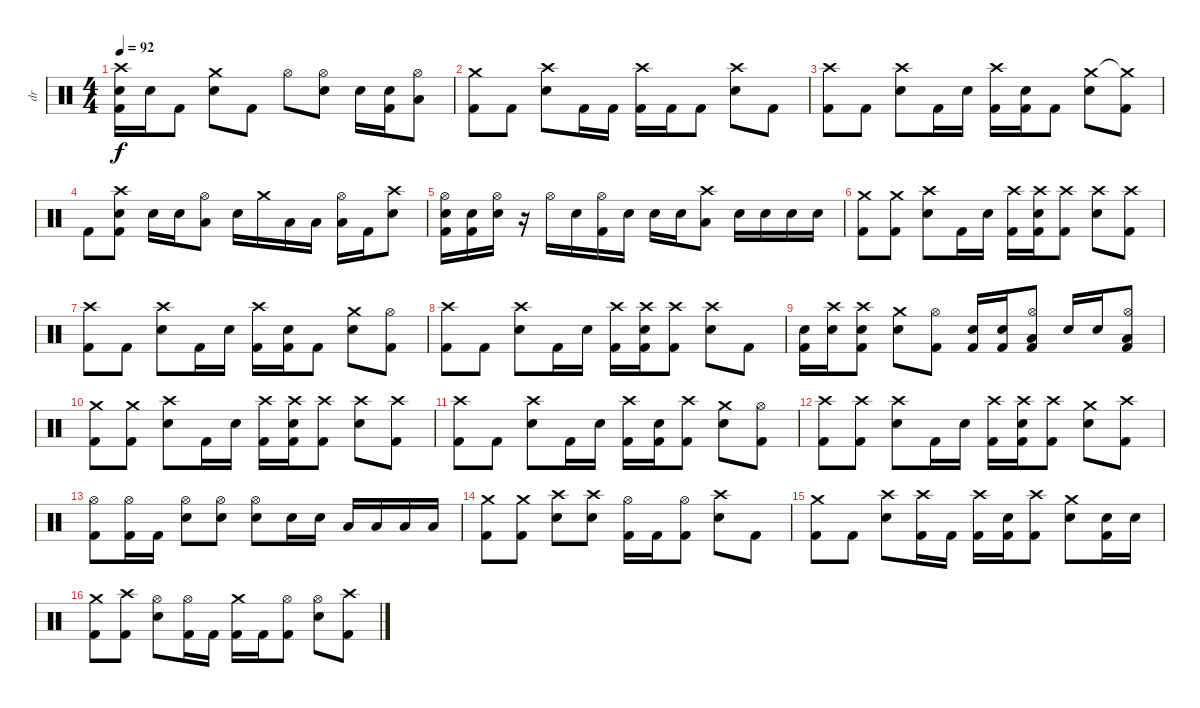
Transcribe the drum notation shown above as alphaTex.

\track ("dr" "dr") {instrument percussion}
\staff {score}
\articulation defaults
\ts (4 4)
\tempo 92
\clef neutral
\ks c
("Crash high (hit)" "Electric Snare (hit)" "Kick (hit) 2").16{dy f} "Electric Snare (hit)".16 "Kick (hit) 2".8 ("Crash medium (hit)" "Electric Snare (hit)").8 "Kick (hit) 2".8 "Hi-Hat (open)".8 ("Hi-Hat (open)" "Electric Snare (hit)").8 "Electric Snare (hit)".16 ("Electric Snare (hit)" "Kick (hit) 2").16 ("Hi-Hat (open)" "Low Floor Tom (hit)").8 |
("Crash medium (hit)" "Kick (hit) 2").8 "Kick (hit) 2".8 ("Crash high (hit)" "Electric Snare (hit)").8 "Kick (hit) 2".16 "Kick (hit) 2".16 ("Crash high (hit)" "Kick (hit) 2").16 "Kick (hit) 2".16 "Kick (hit) 2".8 ("Crash high (hit)" "Electric Snare (hit)").8 "Kick (hit) 2".8 |
("Crash high (hit)" "Kick (hit) 2").8 "Kick (hit) 2".8 ("Crash high (hit)" "Electric Snare (hit)").8 "Kick (hit) 2".16 "Electric Snare (hit)".16 ("Crash high (hit)" "Kick (hit) 2").16 ("Electric Snare (hit)" "Kick (hit) 2").16 "Kick (hit) 2".8 ("Crash medium (hit)" "Electric Snare (hit)").8 ("Crash medium (hit)"{t} "Kick (hit) 2").8 |
"Kick (hit) 2".8 ("Crash high (hit)" "Electric Snare (hit)" "Kick (hit) 2").8 "Electric Snare (hit)".16 "Electric Snare (hit)".16 ("Hi-Hat (open)" "Low Floor Tom (hit)").8 "Electric Snare (hit)".16 "Crash medium (hit)".16 "Low Tom (hit)".16 "Low Tom (hit)".16 ("Hi-Hat (open)" "Low Tom (hit)").16 "Kick (hit) 2".16 ("Crash high (hit)" "Electric Snare (hit)").8 |
("Hi-Hat (open)" "Electric Snare (hit)" "Kick (hit) 2").16 ("Electric Snare (hit)" "Kick (hit) 2").16 ("Hi-Hat (open)" "Electric Snare (hit)").16 r.16 "Hi-Hat (open)".16 "Electric Snare (hit)".16 ("Hi-Hat (open)" "Kick (hit) 2").16 "Electric Snare (hit)".16 "Electric Snare (hit)".16 "Electric Snare (hit)".16 ("Crash high (hit)" "Low Tom (hit)").8 "Electric Snare (hit)".16 "Electric Snare (hit)".16 "Electric Snare (hit)".16 "Electric Snare (hit)".16 |
("Crash medium (hit)" "Kick (hit) 2").8 ("Crash medium (hit)" "Kick (hit) 2").8 ("Crash high (hit)" "Electric Snare (hit)").8 "Kick (hit) 2".16 "Electric Snare (hit)".16 ("Crash high (hit)" "Kick (hit) 2").16 ("Crash high (hit)" "Electric Snare (hit)" "Kick (hit) 2").16 ("Crash high (hit)" "Kick (hit) 2").8 ("Crash high (hit)" "Electric Snare (hit)").8 ("Crash high (hit)" "Kick (hit) 2").8 |
("Crash high (hit)" "Kick (hit) 2").8 "Kick (hit) 2".8 ("Crash high (hit)" "Electric Snare (hit)").8 "Kick (hit) 2".16 "Electric Snare (hit)".16 ("Crash high (hit)" "Kick (hit) 2").16 ("Electric Snare (hit)" "Kick (hit) 2").16 "Kick (hit) 2".8 ("Crash medium (hit)" "Electric Snare (hit)").8 ("Hi-Hat (open)" "Kick (hit) 2").8 |
("Crash high (hit)" "Kick (hit) 2").8 "Kick (hit) 2".8 ("Crash high (hit)" "Electric Snare (hit)").8 "Kick (hit) 2".16 "Electric Snare (hit)".16 ("Crash high (hit)" "Kick (hit) 2").16 ("Crash high (hit)" "Electric Snare (hit)" "Kick (hit) 2").16 ("Crash high (hit)" "Kick (hit) 2").8 ("Crash high (hit)" "Electric Snare (hit)").8 "Kick (hit) 2".8 |
("Electric Snare (hit)" "Kick (hit) 2").16 ("Crash high (hit)" "Electric Snare (hit)").16 ("Crash high (hit)" "Electric Snare (hit)" "Kick (hit) 2").8 ("Crash medium (hit)" "Electric Snare (hit)").8 ("Hi-Hat (open)" "Kick (hit) 2").8 ("Electric Snare (hit)" "Kick (hit) 2").16 ("Electric Snare (hit)" "Kick (hit) 2").16 ("Hi-Hat (open)" "Low Tom (hit)" "Kick (hit) 2").8 "Electric Snare (hit)".16 "Electric Snare (hit)".16 ("Hi-Hat (open)" "Low Tom (hit)" "Kick (hit) 2").8 |
("Crash medium (hit)" "Kick (hit) 2").8 ("Crash medium (hit)" "Kick (hit) 2").8 ("Crash high (hit)" "Electric Snare (hit)").8 "Kick (hit) 2".16 "Electric Snare (hit)".16 ("Crash high (hit)" "Kick (hit) 2").16 ("Crash high (hit)" "Electric Snare (hit)" "Kick (hit) 2").16 ("Crash high (hit)" "Kick (hit) 2").8 ("Crash high (hit)" "Electric Snare (hit)").8 ("Crash high (hit)" "Kick (hit) 2").8 |
("Crash high (hit)" "Kick (hit) 2").8 "Kick (hit) 2".8 ("Crash high (hit)" "Electric Snare (hit)").8 "Kick (hit) 2".16 "Electric Snare (hit)".16 ("Crash high (hit)" "Kick (hit) 2").16 ("Electric Snare (hit)" "Kick (hit) 2").16 ("Crash high (hit)" "Kick (hit) 2").8 ("Crash medium (hit)" "Electric Snare (hit)").8 ("Hi-Hat (open)" "Kick (hit) 2").8 |
("Crash high (hit)" "Kick (hit) 2").8 ("Crash high (hit)" "Kick (hit) 2").8 ("Crash high (hit)" "Electric Snare (hit)").8 "Kick (hit) 2".16 "Electric Snare (hit)".16 ("Crash high (hit)" "Kick (hit) 2").16 ("Crash high (hit)" "Electric Snare (hit)" "Kick (hit) 2").16 ("Crash high (hit)" "Kick (hit) 2").8 ("Crash medium (hit)" "Electric Snare (hit)").8 ("Crash high (hit)" "Kick (hit) 2").8 |
("Hi-Hat (open)" "Kick (hit) 2").8 ("Hi-Hat (open)" "Kick (hit) 2").16 "Kick (hit) 2".16 ("Hi-Hat (open)" "Electric Snare (hit)").8 ("Hi-Hat (open)" "Electric Snare (hit)").8 ("Hi-Hat (open)" "Electric Snare (hit)").8 "Electric Snare (hit)".16 "Electric Snare (hit)".16 "Low Tom (hit)".16 "Low Tom (hit)".16 "Low Floor Tom (hit)".16 "Low Floor Tom (hit)".16 |
("Crash medium (hit)" "Kick (hit) 2").8 ("Crash medium (hit)" "Kick (hit) 2").8 ("Crash high (hit)" "Electric Snare (hit)").8 ("Crash high (hit)" "Electric Snare (hit)").8 ("Hi-Hat (open)" "Kick (hit) 2").16 "Kick (hit) 2".16 ("Hi-Hat (open)" "Kick (hit) 2").8 ("Crash high (hit)" "Electric Snare (hit)").8 "Kick (hit) 2".8 |
("Crash medium (hit)" "Kick (hit) 2").8 "Kick (hit) 2".8 ("Crash high (hit)" "Electric Snare (hit)").8 ("Crash high (hit)" "Kick (hit) 2").16 "Kick (hit) 2".16 ("Crash high (hit)" "Kick (hit) 2").16 ("Electric Snare (hit)" "Kick (hit) 2").16 ("Crash high (hit)" "Kick (hit) 2").8 ("Crash medium (hit)" "Electric Snare (hit)").8 ("Electric Snare (hit)" "Kick (hit) 2").16 "Electric Snare (hit)".16 |
("Crash medium (hit)" "Kick (hit) 2").8 ("Crash high (hit)" "Kick (hit) 2").8 ("Hi-Hat (open)" "Electric Snare (hit)").8 ("Hi-Hat (open)" "Kick (hit) 2").16 "Kick (hit) 2".16 ("Crash medium (hit)" "Kick (hit) 2").16 "Kick (hit) 2".16 ("Hi-Hat (open)" "Kick (hit) 2").8 ("Hi-Hat (open)" "Electric Snare (hit)").8 ("Crash high (hit)" "Kick (hit) 2").8
